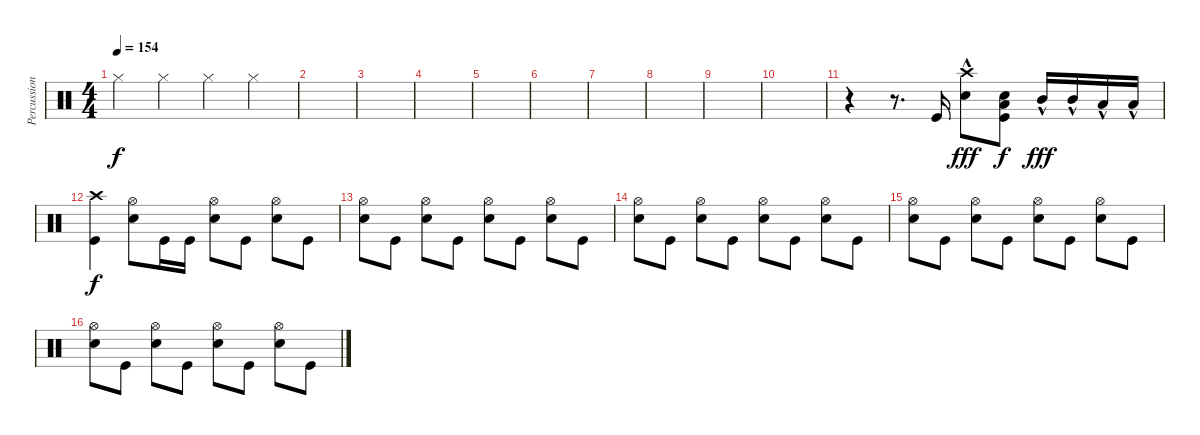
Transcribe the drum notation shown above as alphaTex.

\track ("Percussions" "Percussion") {instrument percussion}
\staff {score}
\articulation defaults
\ts (4 4)
\tempo 154
\clef neutral
\ks c "Hi-Hat (closed)".4{dy f} "Hi-Hat (closed)".4 "Hi-Hat (closed)".4 "Hi-Hat (closed)".4
|
|
|
|
|
|
|
|
|
|
r.4 r.8{d} "Kick (hit)".16 ("Snare (hit) 2"{hac} "Crash high (hit)").8{dy fff} ("Kick (hit)" "Low Floor Tom (hit)" "Snare (hit) 2").8{dy f} "Mid Tom (hit)"{hac}.16{dy fff} "Mid Tom (hit)"{hac}.16 "Low Tom (hit)"{hac}.16 "Low Tom (hit)"{hac}.16 |
("Crash high (hit)" "Kick (hit)").4{dy f} ("Snare (hit) 2" "Hi-Hat (open)").8 "Kick (hit)".16 "Kick (hit)".16 ("Snare (hit) 2" "Hi-Hat (open)").8 "Kick (hit)".8 ("Snare (hit) 2" "Hi-Hat (open)").8 "Kick (hit)".8 |
("Snare (hit) 2" "Hi-Hat (open)").8 "Kick (hit)".8 ("Snare (hit) 2" "Hi-Hat (open)").8 "Kick (hit)".8 ("Snare (hit) 2" "Hi-Hat (open)").8 "Kick (hit)".8 ("Snare (hit) 2" "Hi-Hat (open)").8 "Kick (hit)".8 |
("Snare (hit) 2" "Hi-Hat (open)").8 "Kick (hit)".8 ("Snare (hit) 2" "Hi-Hat (open)").8 "Kick (hit)".8 ("Snare (hit) 2" "Hi-Hat (open)").8 "Kick (hit)".8 ("Snare (hit) 2" "Hi-Hat (open)").8 "Kick (hit)".8 |
("Snare (hit) 2" "Hi-Hat (open)").8 "Kick (hit)".8 ("Snare (hit) 2" "Hi-Hat (open)").8 "Kick (hit)".8 ("Snare (hit) 2" "Hi-Hat (open)").8 "Kick (hit)".8 ("Snare (hit) 2" "Hi-Hat (open)").8 "Kick (hit)".8 |
("Snare (hit) 2" "Hi-Hat (open)").8 "Kick (hit)".8 ("Snare (hit) 2" "Hi-Hat (open)").8 "Kick (hit)".8 ("Snare (hit) 2" "Hi-Hat (open)").8 "Kick (hit)".8 ("Snare (hit) 2" "Hi-Hat (open)").8 "Kick (hit)".8
